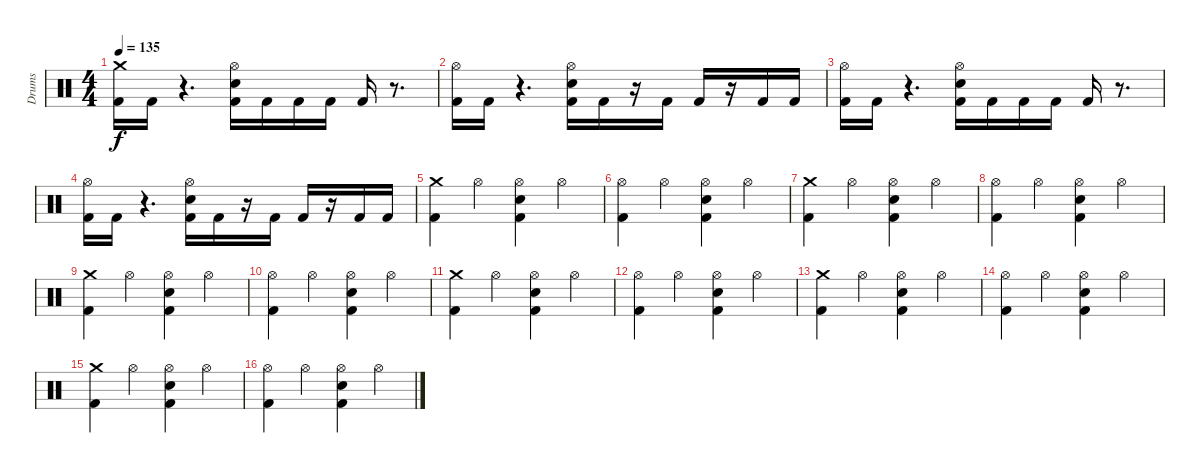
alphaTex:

\track ("Drums" "Drums") {instrument percussion}
\staff {score}
\articulation defaults
\ts (4 4)
\tempo 135
\clef neutral
\ks c
("Crash medium (hit)" "Kick (hit) 2").16{dy f} "Kick (hit) 2".16 r.4{d} ("Snare (hit) 2" "Kick (hit) 2" "Hi-Hat (open)").16 "Kick (hit) 2".16 "Kick (hit) 2".16 "Kick (hit) 2".16 "Kick (hit) 2".16 r.8{d} |
("Kick (hit) 2" "Hi-Hat (open)").16 "Kick (hit) 2".16 r.4{d} ("Snare (hit) 2" "Kick (hit) 2" "Hi-Hat (open)").16 "Kick (hit) 2".16 r.16 "Kick (hit) 2".16 "Kick (hit) 2".16 r.16 "Kick (hit) 2".16 "Kick (hit) 2".16 |
("Hi-Hat (open)" "Kick (hit) 2").16 "Kick (hit) 2".16 r.4{d} ("Snare (hit) 2" "Kick (hit) 2" "Hi-Hat (open)").16 "Kick (hit) 2".16 "Kick (hit) 2".16 "Kick (hit) 2".16 "Kick (hit) 2".16 r.8{d} |
("Kick (hit) 2" "Hi-Hat (open)").16 "Kick (hit) 2".16 r.4{d} ("Snare (hit) 2" "Kick (hit) 2" "Hi-Hat (open)").16 "Kick (hit) 2".16 r.16 "Kick (hit) 2".16 "Kick (hit) 2".16 r.16 "Kick (hit) 2".16 "Kick (hit) 2".16 |
("Crash medium (hit)" "Kick (hit) 2").4 "Hi-Hat (open)".4 ("Hi-Hat (open)" "Kick (hit) 2" "Snare (hit) 2").4 "Hi-Hat (open)".4 |
("Hi-Hat (open)" "Kick (hit) 2").4 "Hi-Hat (open)".4 ("Hi-Hat (open)" "Kick (hit) 2" "Snare (hit) 2").4 "Hi-Hat (open)".4 |
("Crash medium (hit)" "Kick (hit) 2").4 "Hi-Hat (open)".4 ("Hi-Hat (open)" "Kick (hit) 2" "Snare (hit) 2").4 "Hi-Hat (open)".4 |
("Hi-Hat (open)" "Kick (hit) 2").4 "Hi-Hat (open)".4 ("Hi-Hat (open)" "Kick (hit) 2" "Snare (hit) 2").4 "Hi-Hat (open)".4 |
("Crash medium (hit)" "Kick (hit) 2").4 "Hi-Hat (open)".4 ("Hi-Hat (open)" "Kick (hit) 2" "Snare (hit) 2").4 "Hi-Hat (open)".4 |
("Hi-Hat (open)" "Kick (hit) 2").4 "Hi-Hat (open)".4 ("Hi-Hat (open)" "Kick (hit) 2" "Snare (hit) 2").4 "Hi-Hat (open)".4 |
("Crash medium (hit)" "Kick (hit) 2").4 "Hi-Hat (open)".4 ("Hi-Hat (open)" "Kick (hit) 2" "Snare (hit) 2").4 "Hi-Hat (open)".4 |
("Hi-Hat (open)" "Kick (hit) 2").4 "Hi-Hat (open)".4 ("Hi-Hat (open)" "Kick (hit) 2" "Snare (hit) 2").4 "Hi-Hat (open)".4 |
("Crash medium (hit)" "Kick (hit) 2").4 "Hi-Hat (open)".4 ("Hi-Hat (open)" "Kick (hit) 2" "Snare (hit) 2").4 "Hi-Hat (open)".4 |
("Hi-Hat (open)" "Kick (hit) 2").4 "Hi-Hat (open)".4 ("Hi-Hat (open)" "Kick (hit) 2" "Snare (hit) 2").4 "Hi-Hat (open)".4 |
("Crash medium (hit)" "Kick (hit) 2").4 "Hi-Hat (open)".4 ("Hi-Hat (open)" "Kick (hit) 2" "Snare (hit) 2").4 "Hi-Hat (open)".4 |
("Hi-Hat (open)" "Kick (hit) 2").4 "Hi-Hat (open)".4 ("Hi-Hat (open)" "Kick (hit) 2" "Snare (hit) 2").4 "Hi-Hat (open)".4
